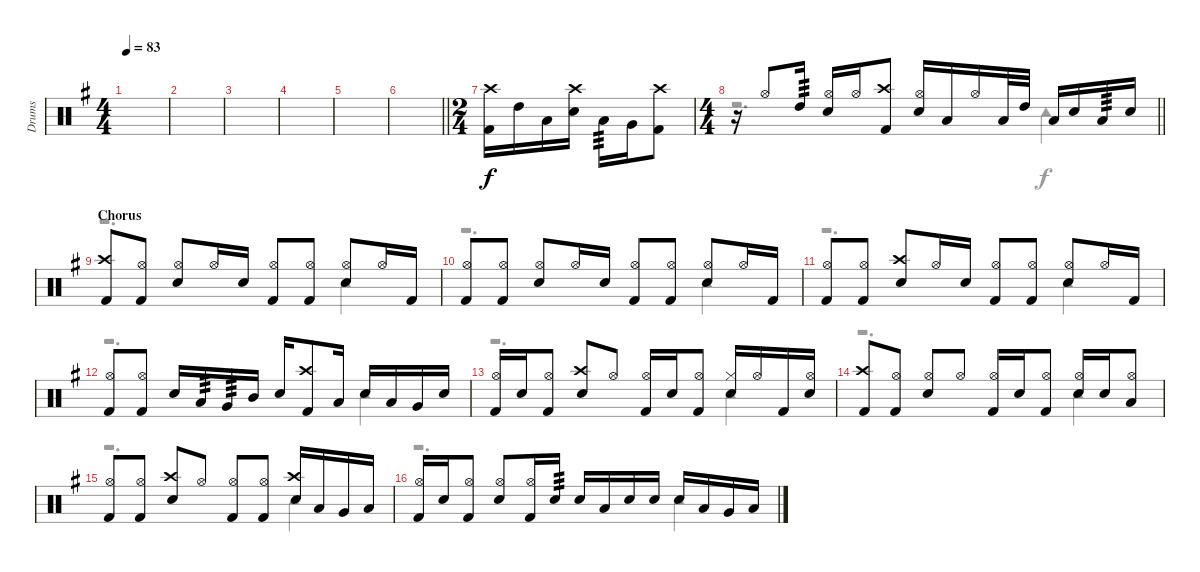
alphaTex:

\track ("Drums" "Drums") {instrument percussion}
\staff {score}
\articulation defaults
\voice
\ts (4 4)
\tempo 83
\clef neutral
\ks g
|
|
|
|
|
\barLineRight lightlight
|
\ts (2 4)
("Crash high (hit)" "Kick (hit) 2").16 "High Tom (hit)".16 "Low Tom (hit)".16 ("Crash high (hit)" "Electric Snare (hit)").16 "Low Tom (hit)".16{tp 3} "Very Low Tom (hit)".16 ("Crash high (hit)" "Kick (hit) 2").8 |
\ts (4 4)
\barLineRight lightlight
r.16 "Hi-Hat (open)".8 "High Tom (hit)".16{tp 3} ("Hi-Hat (open)" "Electric Snare (hit)").16 "Hi-Hat (open)".16 ("Crash high (hit)" "Kick (hit) 2").8 ("Hi-Hat (open)" "Electric Snare (hit)").16 "Low Tom (hit)".16 "Hi-Hat (open)".16 "Low Tom (hit)".32 "High Tom (hit)".32 "Low Tom (hit)".16 "Electric Snare (hit)".16 "Low Tom (hit)".16{tp 3} "Electric Snare (hit)".16 |
\section ("" "Chorus")
("Crash high (hit)" "Kick (hit) 2").8 ("Hi-Hat (open)" "Kick (hit) 2").8 ("Hi-Hat (open)" "Electric Snare (hit)").8 "Hi-Hat (open)".16 "Electric Snare (hit)".16 ("Hi-Hat (open)" "Kick (hit) 2").8 ("Hi-Hat (open)" "Kick (hit) 2").8 ("Hi-Hat (open)" "Electric Snare (hit)").8 "Hi-Hat (open)".16 "Kick (hit) 2".16 |
("Hi-Hat (open)" "Kick (hit) 2").8 ("Hi-Hat (open)" "Kick (hit) 2").8 ("Hi-Hat (open)" "Electric Snare (hit)").8 "Hi-Hat (open)".16 "Electric Snare (hit)".16 ("Hi-Hat (open)" "Kick (hit) 2").8 ("Hi-Hat (open)" "Kick (hit) 2").8 ("Hi-Hat (open)" "Electric Snare (hit)").8 "Hi-Hat (open)".16 "Kick (hit) 2".16 |
("Hi-Hat (open)" "Kick (hit) 2").8 ("Hi-Hat (open)" "Kick (hit) 2").8 ("Crash high (hit)" "Electric Snare (hit)").8 "Hi-Hat (open)".16 "Electric Snare (hit)".16 ("Hi-Hat (open)" "Kick (hit) 2").8 ("Hi-Hat (open)" "Kick (hit) 2").8 ("Hi-Hat (open)" "Electric Snare (hit)").8 "Hi-Hat (open)".16 "Kick (hit) 2".16 |
("Hi-Hat (open)" "Kick (hit) 2").8 ("Hi-Hat (open)" "Kick (hit) 2").8 "Electric Snare (hit)".16 "Low Tom (hit)".16{tp 3} "Very Low Tom (hit)".16{tp 3} "Mid Tom (hit)".16 "Electric Snare (hit)".16 ("Crash high (hit)" "Kick (hit) 2").8 "Low Tom (hit)".16 "Electric Snare (hit)".16 "Low Tom (hit)".16 "Very Low Tom (hit)".16 "Electric Snare (hit)".16 |
("Hi-Hat (open)" "Kick (hit) 2").16 "Electric Snare (hit)".16 ("Hi-Hat (open)" "Kick (hit) 2").8 ("Crash high (hit)" "Electric Snare (hit)").8 "Hi-Hat (open)".8 ("Hi-Hat (open)" "Kick (hit) 2").16 "Electric Snare (hit)".16 ("Hi-Hat (open)" "Kick (hit) 2").8 ("Hi-Hat (closed)" "Electric Snare (hit)").16 "Hi-Hat (open)".16 "Kick (hit) 2".16 ("Hi-Hat (open)" "Electric Snare (hit)").16 |
("Crash high (hit)" "Kick (hit) 2").8 ("Hi-Hat (open)" "Kick (hit) 2").8 ("Hi-Hat (open)" "Electric Snare (hit)").8 "Hi-Hat (open)".8 ("Hi-Hat (open)" "Kick (hit) 2").16 "Electric Snare (hit)".16 ("Hi-Hat (open)" "Kick (hit) 2").8 ("Hi-Hat (open)" "Electric Snare (hit)").16 "Electric Snare (hit)".16 ("Hi-Hat (open)" "Low Tom (hit)").8 |
("Hi-Hat (open)" "Kick (hit) 2").8 ("Hi-Hat (open)" "Kick (hit) 2").8 ("Crash high (hit)" "Electric Snare (hit)").8 "Hi-Hat (open)".8 ("Hi-Hat (open)" "Kick (hit) 2").8 ("Hi-Hat (open)" "Kick (hit) 2").8 ("Crash high (hit)" "Electric Snare (hit)").16 "Low Tom (hit)".16 "Very Low Tom (hit)".16 "Low Floor Tom (hit)".16 |
("Hi-Hat (open)" "Kick (hit) 2").16 "Electric Snare (hit)".16 ("Hi-Hat (open)" "Kick (hit) 2").8 ("Hi-Hat (open)" "Electric Snare (hit)").8 ("Hi-Hat (open)" "Kick (hit) 2").16 "Electric Snare (hit)".16{tp 3} "Electric Snare (hit)".16 "Low Tom (hit)".16 "Electric Snare (hit)".16 "Electric Snare (hit)".16 "Electric Snare (hit)".16 "Low Tom (hit)".16 "Very Low Tom (hit)".16 "Low Floor Tom (hit)".16
\voice
\clef neutral
\ottava regular
\simile none
\ks g
|
|
|
|
|
\barLineRight lightlight
|
|
\barLineRight lightlight
r.2{d} "Tambourine (hit)".4 |
r.2{d} "Tambourine (hit)".4 |
r.2{d} "Tambourine (hit)".4 |
r.2{d} "Tambourine (hit)".4 |
r.2{d} "Tambourine (hit)".4 |
r.2{d} "Tambourine (hit)".4 |
r.2{d} "Tambourine (hit)".4 |
r.2{d} "Tambourine (hit)".4 |
r.2{d} "Tambourine (hit)".4
